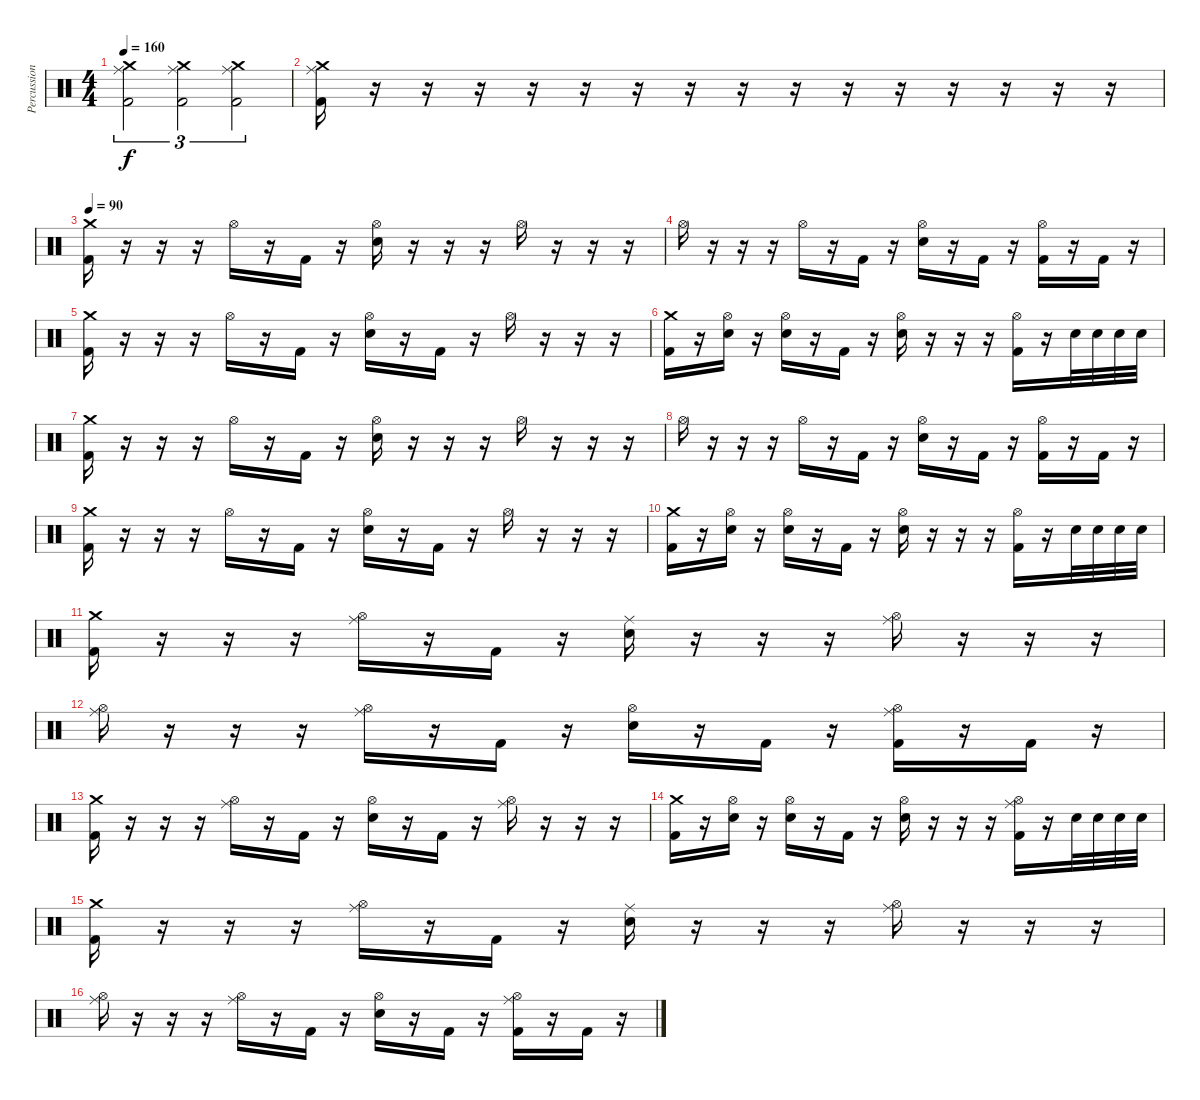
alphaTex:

\track ("Percussion" "Percussion") {instrument percussion}
\staff {score}
\articulation defaults
\ts (4 4)
\tempo 160
\clef neutral
\ks c
("Crash medium (hit)" "Ride (middle)" "Kick (hit) 2").2{tu (3 2) dy f} ("Crash medium (hit)" "Ride (middle)" "Kick (hit) 2").2{tu (3 2)} ("Crash medium (hit)" "Ride (middle)" "Kick (hit) 2").2{tu (3 2)} |
("Crash medium (hit)" "Ride (middle)" "Kick (hit) 2").16 r.16 r.16 r.16 r.16 r.16 r.16 r.16 r.16 r.16 r.16 r.16 r.16 r.16 r.16 r.16 |
\tempo 90
("Crash medium (hit)" "Kick (hit) 2").16 r.16 r.16 r.16 "Hi-Hat (open)".16 r.16 "Kick (hit) 2".16 r.16 ("Hi-Hat (open)" "Electric Snare (hit)").16 r.16 r.16 r.16 "Hi-Hat (open)".16 r.16 r.16 r.16 |
"Hi-Hat (open)".16 r.16 r.16 r.16 "Hi-Hat (open)".16 r.16 "Kick (hit) 2".16 r.16 ("Hi-Hat (open)" "Electric Snare (hit)").16 r.16 "Kick (hit) 2".16 r.16 ("Hi-Hat (open)" "Kick (hit) 2").16 r.16 "Kick (hit) 2".16 r.16 |
("Crash medium (hit)" "Kick (hit) 2").16 r.16 r.16 r.16 "Hi-Hat (open)".16 r.16 "Kick (hit) 2".16 r.16 ("Hi-Hat (open)" "Electric Snare (hit)").16 r.16 "Kick (hit) 2".16 r.16 "Hi-Hat (open)".16 r.16 r.16 r.16 |
("Crash medium (hit)" "Kick (hit) 2").16 r.16 ("Hi-Hat (open)" "Electric Snare (hit)").16 r.16 ("Hi-Hat (open)" "Electric Snare (hit)").16 r.16 "Kick (hit) 2".16 r.16 ("Hi-Hat (open)" "Electric Snare (hit)").16 r.16 r.16 r.16 ("Hi-Hat (open)" "Kick (hit) 2").16 r.16 "Electric Snare (hit)".32 "Electric Snare (hit)".32 "Electric Snare (hit)".32 "Electric Snare (hit)".32 |
("Crash medium (hit)" "Kick (hit) 2").16 r.16 r.16 r.16 "Hi-Hat (open)".16 r.16 "Kick (hit) 2".16 r.16 ("Hi-Hat (open)" "Electric Snare (hit)").16 r.16 r.16 r.16 "Hi-Hat (open)".16 r.16 r.16 r.16 |
"Hi-Hat (open)".16 r.16 r.16 r.16 "Hi-Hat (open)".16 r.16 "Kick (hit) 2".16 r.16 ("Hi-Hat (open)" "Electric Snare (hit)").16 r.16 "Kick (hit) 2".16 r.16 ("Hi-Hat (open)" "Kick (hit) 2").16 r.16 "Kick (hit) 2".16 r.16 |
("Crash medium (hit)" "Kick (hit) 2").16 r.16 r.16 r.16 "Hi-Hat (open)".16 r.16 "Kick (hit) 2".16 r.16 ("Hi-Hat (open)" "Electric Snare (hit)").16 r.16 "Kick (hit) 2".16 r.16 "Hi-Hat (open)".16 r.16 r.16 r.16 |
("Crash medium (hit)" "Kick (hit) 2").16 r.16 ("Hi-Hat (open)" "Electric Snare (hit)").16 r.16 ("Hi-Hat (open)" "Electric Snare (hit)").16 r.16 "Kick (hit) 2".16 r.16 ("Hi-Hat (open)" "Electric Snare (hit)").16 r.16 r.16 r.16 ("Hi-Hat (open)" "Kick (hit) 2").16 r.16 "Electric Snare (hit)".32 "Electric Snare (hit)".32 "Electric Snare (hit)".32 "Electric Snare (hit)".32 |
("Crash medium (hit)" "Kick (hit) 2").16 r.16 r.16 r.16 ("Ride (middle)" "Hi-Hat (open)").16 r.16 "Kick (hit) 2".16 r.16 ("Ride (middle)" "Electric Snare (hit)").16 r.16 r.16 r.16 ("Ride (middle)" "Hi-Hat (open)").16 r.16 r.16 r.16 |
("Ride (middle)" "Hi-Hat (open)").16 r.16 r.16 r.16 ("Ride (middle)" "Hi-Hat (open)").16 r.16 "Kick (hit) 2".16 r.16 ("Hi-Hat (open)" "Electric Snare (hit)").16 r.16 "Kick (hit) 2".16 r.16 ("Ride (middle)" "Hi-Hat (open)" "Kick (hit) 2").16 r.16 "Kick (hit) 2".16 r.16 |
("Crash medium (hit)" "Kick (hit) 2").16 r.16 r.16 r.16 ("Ride (middle)" "Hi-Hat (open)").16 r.16 "Kick (hit) 2".16 r.16 ("Hi-Hat (open)" "Electric Snare (hit)").16 r.16 "Kick (hit) 2".16 r.16 ("Ride (middle)" "Hi-Hat (open)").16 r.16 r.16 r.16 |
("Crash medium (hit)" "Kick (hit) 2").16 r.16 ("Hi-Hat (open)" "Electric Snare (hit)").16 r.16 ("Hi-Hat (open)" "Electric Snare (hit)").16 r.16 "Kick (hit) 2".16 r.16 ("Hi-Hat (open)" "Electric Snare (hit)").16 r.16 r.16 r.16 ("Hi-Hat (open)" "Ride (middle)" "Kick (hit) 2").16 r.16 "Electric Snare (hit)".32 "Electric Snare (hit)".32 "Electric Snare (hit)".32 "Electric Snare (hit)".32 |
("Crash medium (hit)" "Kick (hit) 2").16 r.16 r.16 r.16 ("Ride (middle)" "Hi-Hat (open)").16 r.16 "Kick (hit) 2".16 r.16 ("Ride (middle)" "Electric Snare (hit)").16 r.16 r.16 r.16 ("Ride (middle)" "Hi-Hat (open)").16 r.16 r.16 r.16 |
("Ride (middle)" "Hi-Hat (open)").16 r.16 r.16 r.16 ("Ride (middle)" "Hi-Hat (open)").16 r.16 "Kick (hit) 2".16 r.16 ("Hi-Hat (open)" "Electric Snare (hit)").16 r.16 "Kick (hit) 2".16 r.16 ("Ride (middle)" "Hi-Hat (open)" "Kick (hit) 2").16 r.16 "Kick (hit) 2".16 r.16
